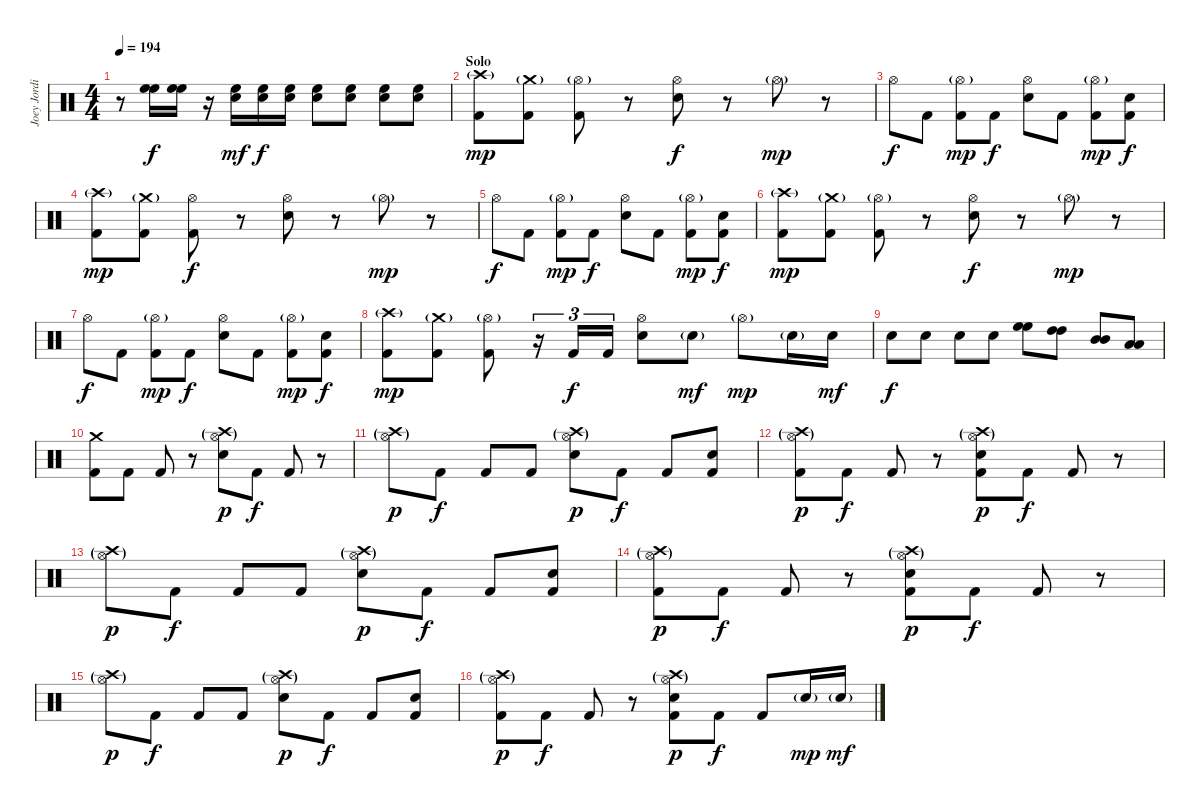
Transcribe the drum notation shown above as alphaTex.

\track ("Joey Jordison" "Joey Jordi") {instrument percussion}
\staff {score}
\articulation defaults
\ts (4 4)
\tempo 194
\clef neutral
\ks c
r.8{dy p} ("High Floor Tom (hit)" "High Floor Tom (hit)").16{dy f} ("High Floor Tom (hit)" "High Floor Tom (hit)").16 r.16 ("Snare (hit) 2" "High Floor Tom (hit)").16{dy mf} ("Snare (hit) 2" "High Floor Tom (hit)").16{dy f} ("Snare (hit) 2" "High Floor Tom (hit)").16 ("Snare (hit) 2" "High Floor Tom (hit)").8 ("Snare (hit) 2" "High Floor Tom (hit)").8 ("Snare (hit) 2" "High Floor Tom (hit)").8 ("Snare (hit) 2" "High Floor Tom (hit)").8 |
\section ("" "Solo")
("Crash high (hit)"{g} "Kick (hit) 2").8{dy mp} ("Crash medium (hit)"{g} "Kick (hit) 2").8 ("Hi-Hat (open)"{g} "Kick (hit) 2").8 r.8 ("Hi-Hat (open)" "Snare (hit) 2").8{dy f} r.8 "Hi-Hat (open)"{g}.8{dy mp} r.8 |
"Hi-Hat (open)".8{dy f} "Kick (hit) 2".8 ("Hi-Hat (open)"{g} "Kick (hit) 2").8{dy mp} "Kick (hit) 2".8{dy f} ("Hi-Hat (open)" "Snare (hit) 2").8 "Kick (hit) 2".8 ("Hi-Hat (open)"{g} "Kick (hit) 2").8{dy mp} ("Snare (hit) 2" "Kick (hit) 2").8{dy f} |
("Crash high (hit)"{g} "Kick (hit) 2").8{dy mp} ("Crash medium (hit)"{g} "Kick (hit) 2").8 ("Hi-Hat (open)" "Kick (hit) 2").8{dy f} r.8 ("Hi-Hat (open)" "Snare (hit) 2").8 r.8 "Hi-Hat (open)"{g}.8{dy mp} r.8 |
"Hi-Hat (open)".8{dy f} "Kick (hit) 2".8 ("Hi-Hat (open)"{g} "Kick (hit) 2").8{dy mp} "Kick (hit) 2".8{dy f} ("Hi-Hat (open)" "Snare (hit) 2").8 "Kick (hit) 2".8 ("Hi-Hat (open)"{g} "Kick (hit) 2").8{dy mp} ("Snare (hit) 2" "Kick (hit) 2").8{dy f} |
("Crash high (hit)"{g} "Kick (hit) 2").8{dy mp} ("Crash medium (hit)"{g} "Kick (hit) 2").8 ("Hi-Hat (open)"{g} "Kick (hit) 2").8 r.8 ("Hi-Hat (open)" "Snare (hit) 2").8{dy f} r.8 "Hi-Hat (open)"{g}.8{dy mp} r.8 |
"Hi-Hat (open)".8{dy f} "Kick (hit) 2".8 ("Hi-Hat (open)"{g} "Kick (hit) 2").8{dy mp} "Kick (hit) 2".8{dy f} ("Hi-Hat (open)" "Snare (hit) 2").8 "Kick (hit) 2".8 ("Hi-Hat (open)"{g} "Kick (hit) 2").8{dy mp} ("Snare (hit) 2" "Kick (hit) 2").8{dy f} |
("Crash high (hit)"{g} "Kick (hit) 2").8{dy mp} ("Crash medium (hit)"{g} "Kick (hit) 2").8 ("Hi-Hat (open)"{g} "Kick (hit) 2").8 r.16{tu (3 2)} "Kick (hit) 2".16{tu (3 2) dy f} "Kick (hit) 2".16{tu (3 2)} ("Hi-Hat (open)" "Snare (hit) 2").8 "Snare (hit) 2"{g}.8{dy mf} "Hi-Hat (open)"{g}.8{dy mp} "Snare (hit) 2"{g}.16 "Snare (hit) 2".16{dy mf} |
"Snare (hit) 2".8{dy f} "Snare (hit) 2".8 "Snare (hit) 2".8 "Snare (hit) 2".8 ("High Floor Tom (hit)" "High Floor Tom (hit)").8 ("High Tom (hit)" "High Tom (hit)").8 ("Mid Tom (hit)" "Mid Tom (hit)").8 ("Low Tom (hit)" "Low Tom (hit)").8 |
("Crash medium (hit)" "Kick (hit) 2").8 "Kick (hit) 2".8 "Kick (hit) 2".8 r.8 ("Hi-Hat (open)"{g} "Crash high (hit)"{g} "Snare (hit) 2").8{dy p} "Kick (hit) 2".8{dy f} "Kick (hit) 2".8 r.8 |
("Hi-Hat (open)"{g} "Crash high (hit)"{g}).8{dy p} "Kick (hit) 2".8{dy f} "Kick (hit) 2".8 "Kick (hit) 2".8 ("Hi-Hat (open)"{g} "Crash high (hit)"{g} "Snare (hit) 2").8{dy p} "Kick (hit) 2".8{dy f} "Kick (hit) 2".8 ("Snare (hit) 2" "Kick (hit) 2").8 |
("Hi-Hat (open)"{g} "Crash high (hit)"{g} "Kick (hit) 2").8{dy p} "Kick (hit) 2".8{dy f} "Kick (hit) 2".8 r.8 ("Hi-Hat (open)"{g} "Crash high (hit)"{g} "Snare (hit) 2" "Kick (hit) 2").8{dy p} "Kick (hit) 2".8{dy f} "Kick (hit) 2".8 r.8 |
("Hi-Hat (open)"{g} "Crash high (hit)"{g}).8{dy p} "Kick (hit) 2".8{dy f} "Kick (hit) 2".8 "Kick (hit) 2".8 ("Hi-Hat (open)"{g} "Crash high (hit)"{g} "Snare (hit) 2").8{dy p} "Kick (hit) 2".8{dy f} "Kick (hit) 2".8 ("Snare (hit) 2" "Kick (hit) 2").8 |
("Hi-Hat (open)"{g} "Crash high (hit)"{g} "Kick (hit) 2").8{dy p} "Kick (hit) 2".8{dy f} "Kick (hit) 2".8 r.8 ("Hi-Hat (open)"{g} "Crash high (hit)"{g} "Snare (hit) 2" "Kick (hit) 2").8{dy p} "Kick (hit) 2".8{dy f} "Kick (hit) 2".8 r.8 |
("Hi-Hat (open)"{g} "Crash high (hit)"{g}).8{dy p} "Kick (hit) 2".8{dy f} "Kick (hit) 2".8 "Kick (hit) 2".8 ("Hi-Hat (open)"{g} "Crash high (hit)"{g} "Snare (hit) 2").8{dy p} "Kick (hit) 2".8{dy f} "Kick (hit) 2".8 ("Snare (hit) 2" "Kick (hit) 2").8 |
("Hi-Hat (open)"{g} "Crash high (hit)"{g} "Kick (hit) 2").8{dy p} "Kick (hit) 2".8{dy f} "Kick (hit) 2".8 r.8 ("Hi-Hat (open)"{g} "Crash high (hit)"{g} "Snare (hit) 2" "Kick (hit) 2").8{dy p} "Kick (hit) 2".8{dy f} "Kick (hit) 2".8 "Snare (hit) 2"{g}.16{dy mp} "Snare (hit) 2"{g}.16{dy mf}
